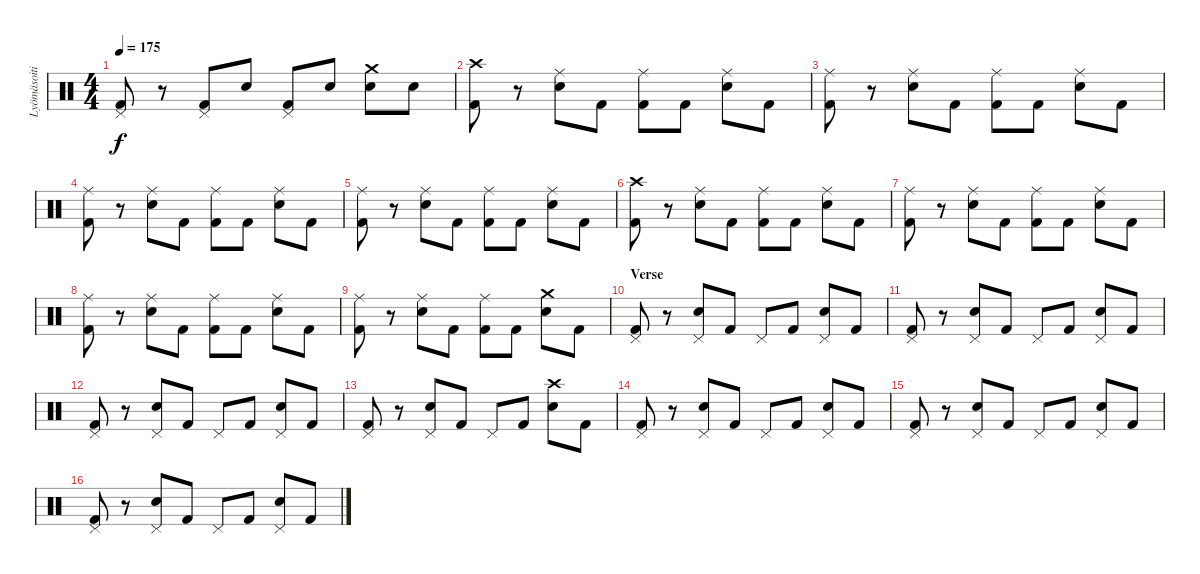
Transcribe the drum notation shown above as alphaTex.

\track ("Lyömäsoitin" "Lyömäsoiti") {instrument percussion}
\staff {score}
\articulation defaults
\ts (4 4)
\tempo 175
\clef neutral
\ks c
("Pedal Hi-Hat (hit)" "Kick (hit) 2").8{dy f} r.8 ("Pedal Hi-Hat (hit)" "Kick (hit) 2").8 "Electric Snare (hit)".8 ("Pedal Hi-Hat (hit)" "Kick (hit) 2").8 "Electric Snare (hit)".8 ("Crash medium (hit)" "Electric Snare (hit)").8 "Electric Snare (hit)".8 |
("Crash high (hit)" "Kick (hit) 2").8 r.8 ("Ride (middle)" "Electric Snare (hit)").8 "Kick (hit) 2".8 ("Ride (middle)" "Kick (hit) 2").8 "Kick (hit) 2".8 ("Ride (middle)" "Electric Snare (hit)").8 "Kick (hit) 2".8 |
("Ride (middle)" "Kick (hit) 2").8 r.8 ("Ride (middle)" "Electric Snare (hit)").8 "Kick (hit) 2".8 ("Ride (middle)" "Kick (hit) 2").8 "Kick (hit) 2".8 ("Ride (middle)" "Electric Snare (hit)").8 "Kick (hit) 2".8 |
("Ride (middle)" "Kick (hit) 2").8 r.8 ("Ride (middle)" "Electric Snare (hit)").8 "Kick (hit) 2".8 ("Ride (middle)" "Kick (hit) 2").8 "Kick (hit) 2".8 ("Ride (middle)" "Electric Snare (hit)").8 "Kick (hit) 2".8 |
("Ride (middle)" "Kick (hit) 2").8 r.8 ("Ride (middle)" "Electric Snare (hit)").8 "Kick (hit) 2".8 ("Ride (middle)" "Kick (hit) 2").8 "Kick (hit) 2".8 ("Ride (middle)" "Electric Snare (hit)").8 "Kick (hit) 2".8 |
("Crash high (hit)" "Kick (hit) 2").8 r.8 ("Ride (middle)" "Electric Snare (hit)").8 "Kick (hit) 2".8 ("Ride (middle)" "Kick (hit) 2").8 "Kick (hit) 2".8 ("Ride (middle)" "Electric Snare (hit)").8 "Kick (hit) 2".8 |
("Ride (middle)" "Kick (hit) 2").8 r.8 ("Ride (middle)" "Electric Snare (hit)").8 "Kick (hit) 2".8 ("Ride (middle)" "Kick (hit) 2").8 "Kick (hit) 2".8 ("Ride (middle)" "Electric Snare (hit)").8 "Kick (hit) 2".8 |
("Ride (middle)" "Kick (hit) 2").8 r.8 ("Ride (middle)" "Electric Snare (hit)").8 "Kick (hit) 2".8 ("Ride (middle)" "Kick (hit) 2").8 "Kick (hit) 2".8 ("Ride (middle)" "Electric Snare (hit)").8 "Kick (hit) 2".8 |
("Ride (middle)" "Kick (hit) 2").8 r.8 ("Ride (middle)" "Electric Snare (hit)").8 "Kick (hit) 2".8 ("Ride (middle)" "Kick (hit) 2").8 "Kick (hit) 2".8 ("Crash medium (hit)" "Electric Snare (hit)").8 "Kick (hit) 2".8 |
\section ("" "Verse")
("Pedal Hi-Hat (hit)" "Kick (hit) 2").8 r.8 ("Pedal Hi-Hat (hit)" "Electric Snare (hit)").8 "Kick (hit) 2".8 "Pedal Hi-Hat (hit)".8 "Kick (hit) 2".8 ("Pedal Hi-Hat (hit)" "Electric Snare (hit)").8 "Kick (hit) 2".8 |
("Pedal Hi-Hat (hit)" "Kick (hit) 2").8 r.8 ("Pedal Hi-Hat (hit)" "Electric Snare (hit)").8 "Kick (hit) 2".8 "Pedal Hi-Hat (hit)".8 "Kick (hit) 2".8 ("Pedal Hi-Hat (hit)" "Electric Snare (hit)").8 "Kick (hit) 2".8 |
("Pedal Hi-Hat (hit)" "Kick (hit) 2").8 r.8 ("Pedal Hi-Hat (hit)" "Electric Snare (hit)").8 "Kick (hit) 2".8 "Pedal Hi-Hat (hit)".8 "Kick (hit) 2".8 ("Pedal Hi-Hat (hit)" "Electric Snare (hit)").8 "Kick (hit) 2".8 |
("Pedal Hi-Hat (hit)" "Kick (hit) 2").8 r.8 ("Pedal Hi-Hat (hit)" "Electric Snare (hit)").8 "Kick (hit) 2".8 "Pedal Hi-Hat (hit)".8 "Kick (hit) 2".8 ("Crash high (hit)" "Electric Snare (hit)").8 "Kick (hit) 2".8 |
("Pedal Hi-Hat (hit)" "Kick (hit) 2").8 r.8 ("Pedal Hi-Hat (hit)" "Electric Snare (hit)").8 "Kick (hit) 2".8 "Pedal Hi-Hat (hit)".8 "Kick (hit) 2".8 ("Pedal Hi-Hat (hit)" "Electric Snare (hit)").8 "Kick (hit) 2".8 |
("Pedal Hi-Hat (hit)" "Kick (hit) 2").8 r.8 ("Pedal Hi-Hat (hit)" "Electric Snare (hit)").8 "Kick (hit) 2".8 "Pedal Hi-Hat (hit)".8 "Kick (hit) 2".8 ("Pedal Hi-Hat (hit)" "Electric Snare (hit)").8 "Kick (hit) 2".8 |
("Pedal Hi-Hat (hit)" "Kick (hit) 2").8 r.8 ("Pedal Hi-Hat (hit)" "Electric Snare (hit)").8 "Kick (hit) 2".8 "Pedal Hi-Hat (hit)".8 "Kick (hit) 2".8 ("Pedal Hi-Hat (hit)" "Electric Snare (hit)").8 "Kick (hit) 2".8
